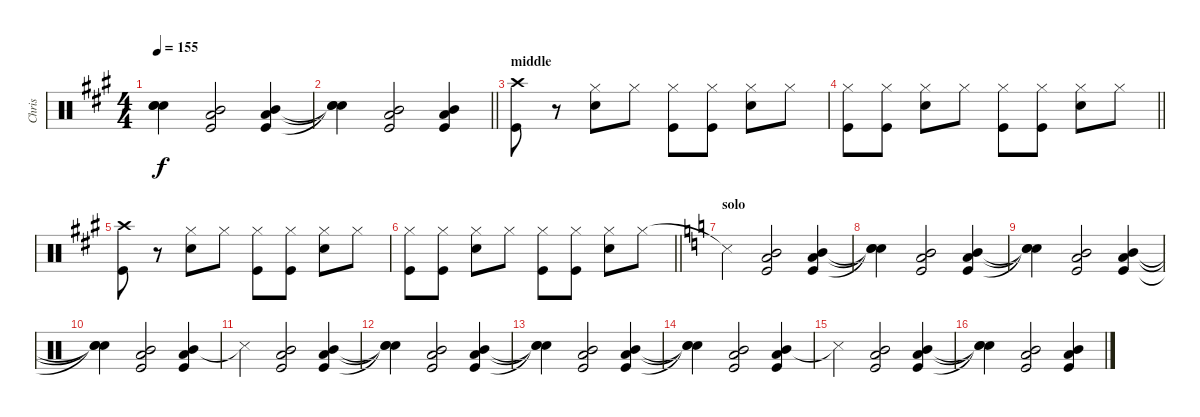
\track ("Chris" "Chris") {instrument percussion}
\staff {score}
\articulation defaults
\ts (4 4)
\tempo 155
\clef neutral
\ks a
("Snare (hit)"{t} "Snare (hit)"{t} "Snare (hit)"{t}).4{dy f} ("Mid Tom (hit)" "Kick (hit)" "Low Floor Tom (hit)").2 ("Mid Tom (hit)" "Kick (hit)" "Low Floor Tom (hit)").4 |
\barLineRight lightlight
("Snare (hit)"{t} "Snare (hit)"{t} "Snare (hit)"{t}).4 ("Mid Tom (hit)" "Kick (hit)" "Low Floor Tom (hit)").2 ("Mid Tom (hit)" "Kick (hit)" "Low Floor Tom (hit)").4 |
\section ("" "middle")
("Crash high (hit)" "Kick (hit)").8 r.8 ("Hi-Hat (closed)" "Snare (hit) 2").8 "Hi-Hat (closed)".8 ("Hi-Hat (closed)" "Kick (hit)").8 ("Hi-Hat (closed)" "Kick (hit)").8 ("Hi-Hat (closed)" "Snare (hit) 2").8 "Hi-Hat (closed)".8 |
\barLineRight lightlight
("Hi-Hat (closed)" "Kick (hit)").8 ("Hi-Hat (closed)" "Kick (hit)").8 ("Hi-Hat (closed)" "Snare (hit) 2").8 "Hi-Hat (closed)".8 ("Hi-Hat (closed)" "Kick (hit)").8 ("Hi-Hat (closed)" "Kick (hit)").8 ("Hi-Hat (closed)" "Snare (hit) 2").8 "Hi-Hat (closed)".8 |
("Crash high (hit)" "Kick (hit)").8 r.8 ("Hi-Hat (closed)" "Snare (hit) 2").8 "Hi-Hat (closed)".8 ("Hi-Hat (closed)" "Kick (hit)").8 ("Hi-Hat (closed)" "Kick (hit)").8 ("Hi-Hat (closed)" "Snare (hit) 2").8 "Hi-Hat (closed)".8 |
\barLineRight lightlight
("Hi-Hat (closed)" "Kick (hit)").8 ("Hi-Hat (closed)" "Kick (hit)").8 ("Hi-Hat (closed)" "Snare (hit) 2").8 "Hi-Hat (closed)".8 ("Hi-Hat (closed)" "Kick (hit)").8 ("Hi-Hat (closed)" "Kick (hit)").8 ("Hi-Hat (closed)" "Snare (hit) 2").8 "Hi-Hat (closed)".8 |
\section ("" "solo")
\ks c "Snare (side stick) 3"{t}.4
("Mid Tom (hit)" "Kick (hit)" "Low Floor Tom (hit)").2 ("Mid Tom (hit)" "Kick (hit)" "Low Floor Tom (hit)").4 |
("Snare (hit)"{t} "Snare (hit)"{t} "Snare (hit)"{t}).4 ("Mid Tom (hit)" "Kick (hit)" "Low Floor Tom (hit)").2 ("Mid Tom (hit)" "Kick (hit)" "Low Floor Tom (hit)").4 |
("Snare (hit)"{t} "Snare (hit)"{t} "Snare (hit)"{t}).4 ("Mid Tom (hit)" "Kick (hit)" "Low Floor Tom (hit)").2 ("Mid Tom (hit)" "Kick (hit)" "Low Floor Tom (hit)").4 |
("Snare (hit)"{t} "Snare (hit)"{t} "Snare (hit)"{t}).4 ("Mid Tom (hit)" "Kick (hit)" "Low Floor Tom (hit)").2 ("Mid Tom (hit)" "Kick (hit)" "Low Floor Tom (hit)").4 |
"Snare (side stick) 3"{t}.4 ("Mid Tom (hit)" "Kick (hit)" "Low Floor Tom (hit)").2 ("Mid Tom (hit)" "Kick (hit)" "Low Floor Tom (hit)").4 |
("Snare (hit)"{t} "Snare (hit)"{t} "Snare (hit)"{t}).4 ("Mid Tom (hit)" "Kick (hit)" "Low Floor Tom (hit)").2 ("Mid Tom (hit)" "Kick (hit)" "Low Floor Tom (hit)").4 |
("Snare (hit)"{t} "Snare (hit)"{t} "Snare (hit)"{t}).4 ("Mid Tom (hit)" "Kick (hit)" "Low Floor Tom (hit)").2 ("Mid Tom (hit)" "Kick (hit)" "Low Floor Tom (hit)").4 |
("Snare (hit)"{t} "Snare (hit)"{t} "Snare (hit)"{t}).4 ("Mid Tom (hit)" "Kick (hit)" "Low Floor Tom (hit)").2 ("Mid Tom (hit)" "Kick (hit)" "Low Floor Tom (hit)").4 |
"Snare (side stick) 3"{t}.4 ("Mid Tom (hit)" "Kick (hit)" "Low Floor Tom (hit)").2 ("Mid Tom (hit)" "Kick (hit)" "Low Floor Tom (hit)").4 |
("Snare (hit)"{t} "Snare (hit)"{t} "Snare (hit)"{t}).4 ("Mid Tom (hit)" "Kick (hit)" "Low Floor Tom (hit)").2 ("Mid Tom (hit)" "Kick (hit)" "Low Floor Tom (hit)").4
